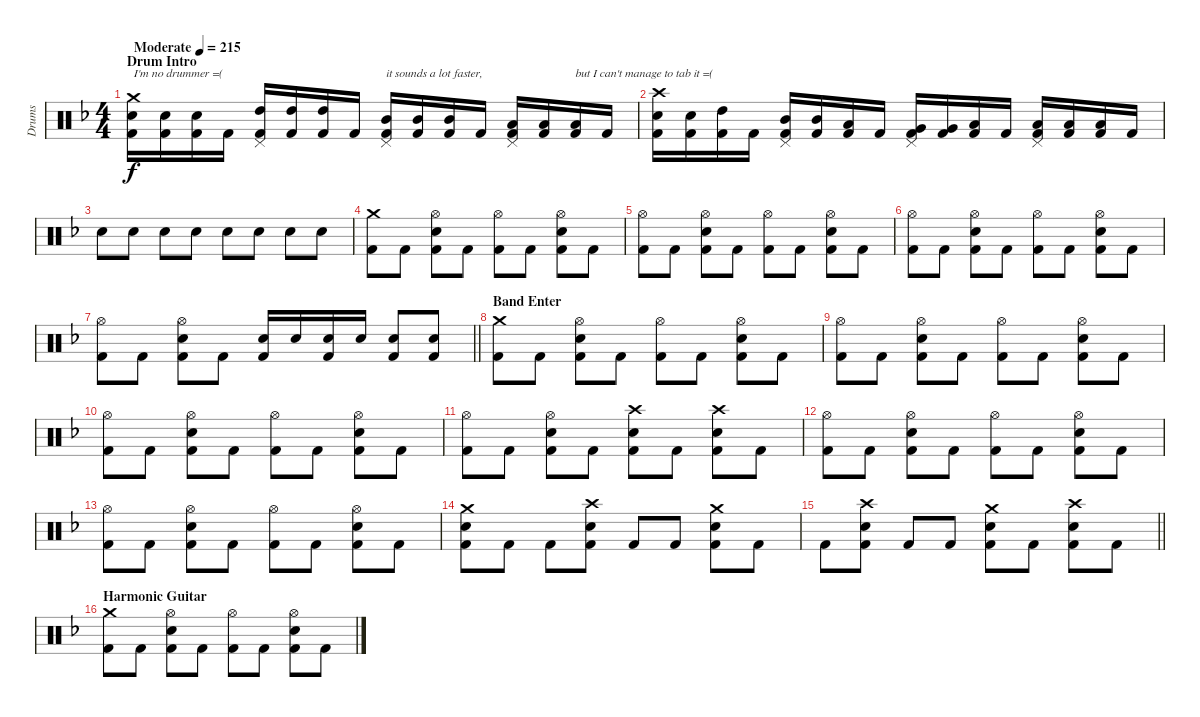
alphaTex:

\track ("Drums" "Drums") {instrument percussion}
\staff {score}
\articulation defaults
\ts (4 4)
\section ("" "Drum Intro")
\tempo (215 "Moderate")
\clef neutral
\ks f
("Crash medium (hit)" "Snare (hit) 2" "Kick (hit) 2").16{txt "I'm no drummer =(" dy f} ("Snare (hit) 2" "Kick (hit) 2").16 ("Snare (hit) 2" "Kick (hit) 2").16 "Kick (hit) 2".16 ("Pedal Hi-Hat (hit)" "High Tom (hit)" "Kick (hit) 2").16 ("High Tom (hit)" "Kick (hit) 2").16 ("High Tom (hit)" "Kick (hit) 2").16 "Kick (hit) 2".16 ("Pedal Hi-Hat (hit)" "Mid Tom (hit)" "Kick (hit) 2").16{txt "it sounds a lot faster,"} ("Mid Tom (hit)" "Kick (hit) 2").16 ("Mid Tom (hit)" "Kick (hit) 2").16 "Kick (hit) 2".16 ("Pedal Hi-Hat (hit)" "Low Tom (hit)" "Kick (hit) 2").16 ("Low Tom (hit)" "Kick (hit) 2").16 ("Low Tom (hit)" "Kick (hit) 2").16{txt "but I can't manage to tab it =("} "Kick (hit) 2".16 |
("Crash high (hit)" "Snare (hit) 2" "Kick (hit) 2").16 ("Snare (hit) 2" "Kick (hit) 2").16 ("High Tom (hit)" "Kick (hit) 2").16 "Kick (hit) 2".16 ("Pedal Hi-Hat (hit)" "Mid Tom (hit)" "Kick (hit) 2").16 ("Mid Tom (hit)" "Kick (hit) 2").16 ("Low Tom (hit)" "Kick (hit) 2").16 "Kick (hit) 2".16 ("Pedal Hi-Hat (hit)" "Very Low Tom (hit)" "Kick (hit) 2").16 ("Very Low Tom (hit)" "Kick (hit) 2").16 ("Low Floor Tom (hit)" "Kick (hit) 2").16 "Kick (hit) 2".16 ("Pedal Hi-Hat (hit)" "Low Floor Tom (hit)" "Kick (hit) 2").16 ("Low Floor Tom (hit)" "Kick (hit) 2").16 ("Low Floor Tom (hit)" "Kick (hit) 2").16 "Kick (hit) 2".16 |
"Snare (hit) 2".8 "Snare (hit) 2".8 "Snare (hit) 2".8 "Snare (hit) 2".8 "Snare (hit) 2".8 "Snare (hit) 2".8 "Snare (hit) 2".8 "Snare (hit) 2".8 |
("Crash medium (hit)" "Kick (hit) 2").8 "Kick (hit) 2".8 ("Hi-Hat (open)" "Snare (hit) 2" "Kick (hit) 2").8 "Kick (hit) 2".8 ("Hi-Hat (open)" "Kick (hit) 2").8 "Kick (hit) 2".8 ("Hi-Hat (open)" "Snare (hit) 2" "Kick (hit) 2").8 "Kick (hit) 2".8 |
("Hi-Hat (open)" "Kick (hit) 2").8 "Kick (hit) 2".8 ("Hi-Hat (open)" "Snare (hit) 2" "Kick (hit) 2").8 "Kick (hit) 2".8 ("Hi-Hat (open)" "Kick (hit) 2").8 "Kick (hit) 2".8 ("Hi-Hat (open)" "Snare (hit) 2" "Kick (hit) 2").8 "Kick (hit) 2".8 |
("Hi-Hat (open)" "Kick (hit) 2").8 "Kick (hit) 2".8 ("Hi-Hat (open)" "Snare (hit) 2" "Kick (hit) 2").8 "Kick (hit) 2".8 ("Hi-Hat (open)" "Kick (hit) 2").8 "Kick (hit) 2".8 ("Hi-Hat (open)" "Snare (hit) 2" "Kick (hit) 2").8 "Kick (hit) 2".8 |
\barLineRight lightlight
("Hi-Hat (open)" "Kick (hit) 2").8 "Kick (hit) 2".8 ("Hi-Hat (open)" "Snare (hit) 2" "Kick (hit) 2").8 "Kick (hit) 2".8 ("Snare (hit) 2" "Kick (hit) 2").16 "Snare (hit) 2".16 ("Snare (hit) 2" "Kick (hit) 2").16 "Snare (hit) 2".16 ("Snare (hit) 2" "Kick (hit) 2").8 ("Snare (hit) 2" "Kick (hit) 2").8 |
\section ("" "Band Enter")
("Crash medium (hit)" "Kick (hit) 2").8 "Kick (hit) 2".8 ("Hi-Hat (open)" "Snare (hit) 2" "Kick (hit) 2").8 "Kick (hit) 2".8 ("Hi-Hat (open)" "Kick (hit) 2").8 "Kick (hit) 2".8 ("Hi-Hat (open)" "Snare (hit) 2" "Kick (hit) 2").8 "Kick (hit) 2".8 |
("Hi-Hat (open)" "Kick (hit) 2").8 "Kick (hit) 2".8 ("Hi-Hat (open)" "Snare (hit) 2" "Kick (hit) 2").8 "Kick (hit) 2".8 ("Hi-Hat (open)" "Kick (hit) 2").8 "Kick (hit) 2".8 ("Hi-Hat (open)" "Snare (hit) 2" "Kick (hit) 2").8 "Kick (hit) 2".8 |
("Hi-Hat (open)" "Kick (hit) 2").8 "Kick (hit) 2".8 ("Hi-Hat (open)" "Snare (hit) 2" "Kick (hit) 2").8 "Kick (hit) 2".8 ("Hi-Hat (open)" "Kick (hit) 2").8 "Kick (hit) 2".8 ("Hi-Hat (open)" "Snare (hit) 2" "Kick (hit) 2").8 "Kick (hit) 2".8 |
("Hi-Hat (open)" "Kick (hit) 2").8 "Kick (hit) 2".8 ("Hi-Hat (open)" "Snare (hit) 2" "Kick (hit) 2").8 "Kick (hit) 2".8 ("Crash high (hit)" "Snare (hit) 2" "Kick (hit) 2").8 "Kick (hit) 2".8 ("Crash high (hit)" "Snare (hit) 2" "Kick (hit) 2").8 "Kick (hit) 2".8 |
("Hi-Hat (open)" "Kick (hit) 2").8 "Kick (hit) 2".8 ("Hi-Hat (open)" "Snare (hit) 2" "Kick (hit) 2").8 "Kick (hit) 2".8 ("Hi-Hat (open)" "Kick (hit) 2").8 "Kick (hit) 2".8 ("Hi-Hat (open)" "Snare (hit) 2" "Kick (hit) 2").8 "Kick (hit) 2".8 |
("Hi-Hat (open)" "Kick (hit) 2").8 "Kick (hit) 2".8 ("Hi-Hat (open)" "Snare (hit) 2" "Kick (hit) 2").8 "Kick (hit) 2".8 ("Hi-Hat (open)" "Kick (hit) 2").8 "Kick (hit) 2".8 ("Hi-Hat (open)" "Snare (hit) 2" "Kick (hit) 2").8 "Kick (hit) 2".8 |
("Crash medium (hit)" "Snare (hit) 2" "Kick (hit) 2").8 "Kick (hit) 2".8 "Kick (hit) 2".8 ("Crash high (hit)" "Snare (hit) 2" "Kick (hit) 2").8 "Kick (hit) 2".8 "Kick (hit) 2".8 ("Crash medium (hit)" "Snare (hit) 2" "Kick (hit) 2").8 "Kick (hit) 2".8 |
\barLineRight lightlight "Kick (hit) 2".8
("Crash high (hit)" "Snare (hit) 2" "Kick (hit) 2").8 "Kick (hit) 2".8 "Kick (hit) 2".8 ("Crash medium (hit)" "Snare (hit) 2" "Kick (hit) 2").8 "Kick (hit) 2".8 ("Crash high (hit)" "Snare (hit) 2" "Kick (hit) 2").8 "Kick (hit) 2".8 |
\section ("" "Harmonic Guitar")
("Crash medium (hit)" "Kick (hit) 2").8 "Kick (hit) 2".8 ("Hi-Hat (open)" "Snare (hit) 2" "Kick (hit) 2").8 "Kick (hit) 2".8 ("Hi-Hat (open)" "Kick (hit) 2").8 "Kick (hit) 2".8 ("Hi-Hat (open)" "Snare (hit) 2" "Kick (hit) 2").8 "Kick (hit) 2".8
